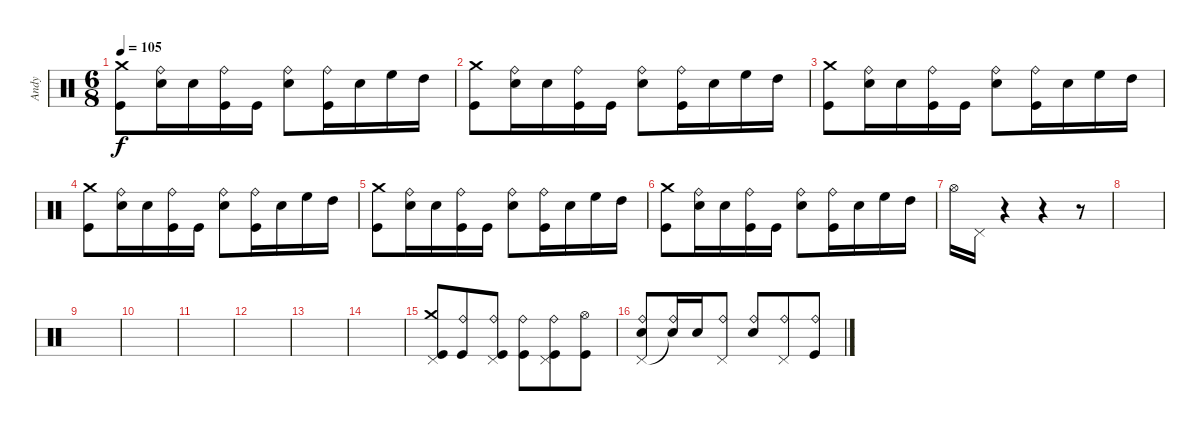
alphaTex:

\track ("Andy" "Andy") {instrument percussion}
\staff {score}
\articulation defaults
\ts (6 8)
\tempo 105
\clef neutral
\ks c
("Kick (hit)" "Crash medium (hit)").8{dy f} ("Snare (hit) 2" "Ride (bell)").16 "Snare (hit) 2".16 ("Kick (hit)" "Ride (bell)").16 "Kick (hit)".16 ("Ride (bell)" "Snare (hit) 2").8 ("Kick (hit)" "Ride (bell)").16 "Snare (hit) 2".16 "High Floor Tom (hit)".16 "High Tom (hit)".16 |
("Kick (hit)" "Crash medium (hit)").8 ("Snare (hit) 2" "Ride (bell)").16 "Snare (hit) 2".16 ("Kick (hit)" "Ride (bell)").16 "Kick (hit)".16 ("Ride (bell)" "Snare (hit) 2").8 ("Kick (hit)" "Ride (bell)").16 "Snare (hit) 2".16 "High Floor Tom (hit)".16 "High Tom (hit)".16 |
("Kick (hit)" "Crash medium (hit)").8 ("Snare (hit) 2" "Ride (bell)").16 "Snare (hit) 2".16 ("Kick (hit)" "Ride (bell)").16 "Kick (hit)".16 ("Ride (bell)" "Snare (hit) 2").8 ("Kick (hit)" "Ride (bell)").16 "Snare (hit) 2".16 "High Floor Tom (hit)".16 "High Tom (hit)".16 |
("Kick (hit)" "Crash medium (hit)").8 ("Snare (hit) 2" "Ride (bell)").16 "Snare (hit) 2".16 ("Kick (hit)" "Ride (bell)").16 "Kick (hit)".16 ("Ride (bell)" "Snare (hit) 2").8 ("Kick (hit)" "Ride (bell)").16 "Snare (hit) 2".16 "High Floor Tom (hit)".16 "High Tom (hit)".16 |
("Kick (hit)" "Crash medium (hit)").8 ("Snare (hit) 2" "Ride (bell)").16 "Snare (hit) 2".16 ("Kick (hit)" "Ride (bell)").16 "Kick (hit)".16 ("Ride (bell)" "Snare (hit) 2").8 ("Kick (hit)" "Ride (bell)").16 "Snare (hit) 2".16 "High Floor Tom (hit)".16 "High Tom (hit)".16 |
("Kick (hit)" "Crash medium (hit)").8 ("Snare (hit) 2" "Ride (bell)").16 "Snare (hit) 2".16 ("Kick (hit)" "Ride (bell)").16 "Kick (hit)".16 ("Ride (bell)" "Snare (hit) 2").8 ("Kick (hit)" "Ride (bell)").16 "Snare (hit) 2".16 "High Floor Tom (hit)".16 "High Tom (hit)".16 |
"Hi-Hat (open)".16 "Pedal Hi-Hat (hit)".16 r.4 r.4 r.8 |
|
|
|
|
|
|
|
("Kick (hit)" "Pedal Hi-Hat (hit)" "Crash medium (hit)").8 ("Kick (hit)" "Ride (bell)").8 ("Kick (hit)" "Ride (bell)" "Pedal Hi-Hat (hit)").8 ("Kick (hit)" "Ride (bell)").8 ("Kick (hit)" "Ride (bell)" "Pedal Hi-Hat (hit)").8 ("Kick (hit)" "Hi-Hat (open)").8 |
("Snare (hit) 2" "Pedal Hi-Hat (hit)" "Ride (bell)").8 ("Ride (bell)" "Snare (hit) 2"{t}).16 "Snare (hit) 2".16 ("Ride (bell)" "Pedal Hi-Hat (hit)").8 ("Snare (hit) 2" "Ride (bell)").8 ("Ride (bell)" "Pedal Hi-Hat (hit)").8 ("Kick (hit)" "Ride (bell)").8
